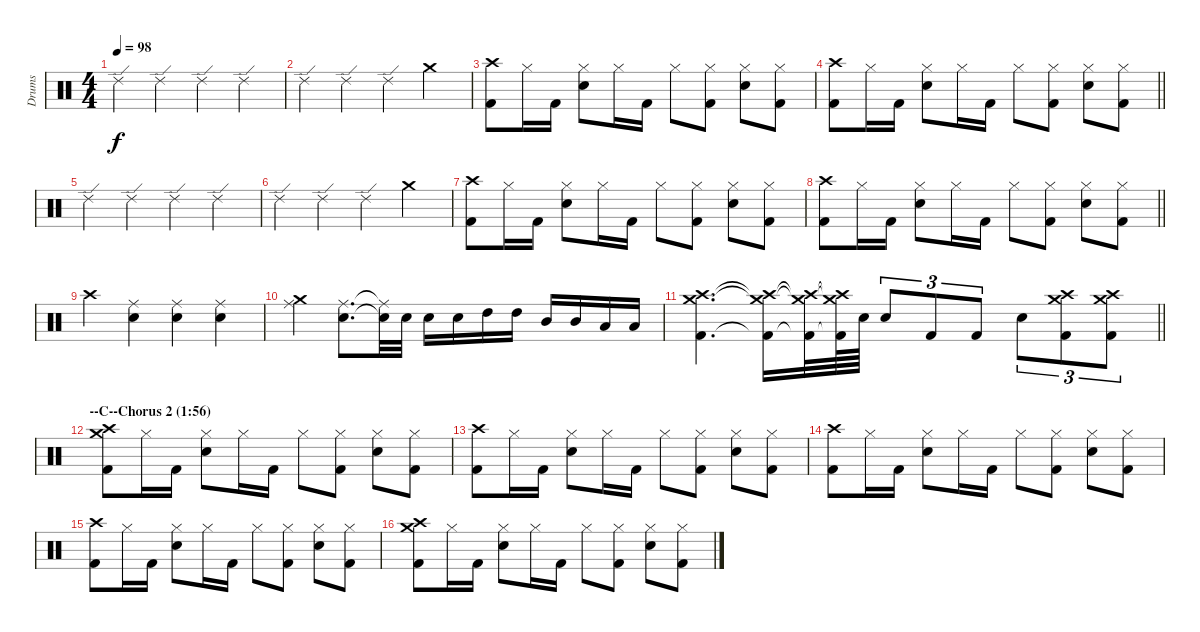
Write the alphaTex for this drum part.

\track ("Drums" "Drums") {instrument percussion}
\staff {score}
\articulation defaults
\ts (4 4)
\tempo 98
\clef neutral
\ks c "Ride (edge) 2".4{dy f} "Ride (edge) 2".4 "Ride (edge) 2".4 "Ride (edge) 2".4
|
"Ride (edge) 2".4 "Ride (edge) 2".4 "Ride (edge) 2".4 "Crash medium (hit)".4 |
("Crash high (hit)" "Kick (hit) 2").8 "Hi-Hat (closed)".16 "Kick (hit) 2".16 ("Hi-Hat (closed)" "Electric Snare (hit)").8 "Hi-Hat (closed)".16 "Kick (hit) 2".16 "Hi-Hat (closed)".8 ("Hi-Hat (closed)" "Kick (hit) 2").8 ("Hi-Hat (closed)" "Electric Snare (hit)").8 ("Hi-Hat (closed)" "Kick (hit) 2").8 |
\barLineRight lightlight
("Crash high (hit)" "Kick (hit) 2").8 "Hi-Hat (closed)".16 "Kick (hit) 2".16 ("Hi-Hat (closed)" "Electric Snare (hit)").8 "Hi-Hat (closed)".16 "Kick (hit) 2".16 "Hi-Hat (closed)".8 ("Hi-Hat (closed)" "Kick (hit) 2").8 ("Hi-Hat (closed)" "Electric Snare (hit)").8 ("Hi-Hat (closed)" "Kick (hit) 2").8 |
"Ride (edge) 2".4 "Ride (edge) 2".4 "Ride (edge) 2".4 "Ride (edge) 2".4 |
"Ride (edge) 2".4 "Ride (edge) 2".4 "Ride (edge) 2".4 "Crash medium (hit)".4 |
("Crash high (hit)" "Kick (hit) 2").8 "Hi-Hat (closed)".16 "Kick (hit) 2".16 ("Hi-Hat (closed)" "Electric Snare (hit)").8 "Hi-Hat (closed)".16 "Kick (hit) 2".16 "Hi-Hat (closed)".8 ("Hi-Hat (closed)" "Kick (hit) 2").8 ("Hi-Hat (closed)" "Electric Snare (hit)").8 ("Hi-Hat (closed)" "Kick (hit) 2").8 |
\barLineRight lightlight
("Crash high (hit)" "Kick (hit) 2").8 "Hi-Hat (closed)".16 "Kick (hit) 2".16 ("Hi-Hat (closed)" "Electric Snare (hit)").8 "Hi-Hat (closed)".16 "Kick (hit) 2".16 "Hi-Hat (closed)".8 ("Hi-Hat (closed)" "Kick (hit) 2").8 ("Hi-Hat (closed)" "Electric Snare (hit)").8 ("Hi-Hat (closed)" "Kick (hit) 2").8 |
"Crash high (hit)".4 ("Electric Snare (hit)" "Ride (middle)").4 ("Electric Snare (hit)" "Ride (middle)").4 ("Electric Snare (hit)" "Ride (middle)").4 |
("Crash medium (hit)" "Ride (middle)").4 ("Electric Snare (hit)" "Ride (middle)").8{d} ("Electric Snare (hit)"{t} "Ride (middle)"{t}).32 "Electric Snare (hit)".32 "Electric Snare (hit)".16 "Electric Snare (hit)".16 "High Tom (hit)".16 "High Tom (hit)".16 "Mid Tom (hit)".16 "Mid Tom (hit)".16 "Low Tom (hit)".16 "Low Tom (hit)".16 |
\barLineRight lightlight
("Crash high (hit)" "Crash medium (hit)" "Kick (hit) 2").4{d} ("Crash high (hit)"{t} "Crash medium (hit)"{t} "Kick (hit) 2"{t}).16 ("Crash high (hit)"{t} "Crash medium (hit)"{t} "Kick (hit) 2"{t}).32 ("Crash high (hit)"{t} "Crash medium (hit)"{t} "Kick (hit) 2"{t}).64 "Electric Snare (hit)".64 "Electric Snare (hit)".8{tu (3 2)} "Kick (hit) 2".8{tu (3 2)} "Kick (hit) 2".8{tu (3 2)} "Electric Snare (hit)".8{tu (3 2)} ("Kick (hit) 2" "Crash high (hit)" "Crash medium (hit)").8{tu (3 2)} ("Kick (hit) 2" "Crash high (hit)" "Crash medium (hit)").8{tu (3 2)} |
\section ("" "--C--Chorus 2 (1:56)")
("Crash high (hit)" "Crash medium (hit)" "Kick (hit) 2").8 "Hi-Hat (closed)".16 "Kick (hit) 2".16 ("Hi-Hat (closed)" "Electric Snare (hit)").8 "Hi-Hat (closed)".16 "Kick (hit) 2".16 "Hi-Hat (closed)".8 ("Hi-Hat (closed)" "Kick (hit) 2").8 ("Hi-Hat (closed)" "Electric Snare (hit)").8 ("Hi-Hat (closed)" "Kick (hit) 2").8 |
("Crash high (hit)" "Kick (hit) 2").8 "Hi-Hat (closed)".16 "Kick (hit) 2".16 ("Hi-Hat (closed)" "Electric Snare (hit)").8 "Hi-Hat (closed)".16 "Kick (hit) 2".16 "Hi-Hat (closed)".8 ("Hi-Hat (closed)" "Kick (hit) 2").8 ("Hi-Hat (closed)" "Electric Snare (hit)").8 ("Hi-Hat (closed)" "Kick (hit) 2").8 |
("Crash high (hit)" "Kick (hit) 2").8 "Hi-Hat (closed)".16 "Kick (hit) 2".16 ("Hi-Hat (closed)" "Electric Snare (hit)").8 "Hi-Hat (closed)".16 "Kick (hit) 2".16 "Hi-Hat (closed)".8 ("Hi-Hat (closed)" "Kick (hit) 2").8 ("Hi-Hat (closed)" "Electric Snare (hit)").8 ("Hi-Hat (closed)" "Kick (hit) 2").8 |
("Crash high (hit)" "Kick (hit) 2").8 "Hi-Hat (closed)".16 "Kick (hit) 2".16 ("Hi-Hat (closed)" "Electric Snare (hit)").8 "Hi-Hat (closed)".16 "Kick (hit) 2".16 "Hi-Hat (closed)".8 ("Hi-Hat (closed)" "Kick (hit) 2").8 ("Hi-Hat (closed)" "Electric Snare (hit)").8 ("Hi-Hat (closed)" "Kick (hit) 2").8 |
("Crash high (hit)" "Crash medium (hit)" "Kick (hit) 2").8 "Hi-Hat (closed)".16 "Kick (hit) 2".16 ("Hi-Hat (closed)" "Electric Snare (hit)").8 "Hi-Hat (closed)".16 "Kick (hit) 2".16 "Hi-Hat (closed)".8 ("Hi-Hat (closed)" "Kick (hit) 2").8 ("Hi-Hat (closed)" "Electric Snare (hit)").8 ("Hi-Hat (closed)" "Kick (hit) 2").8
